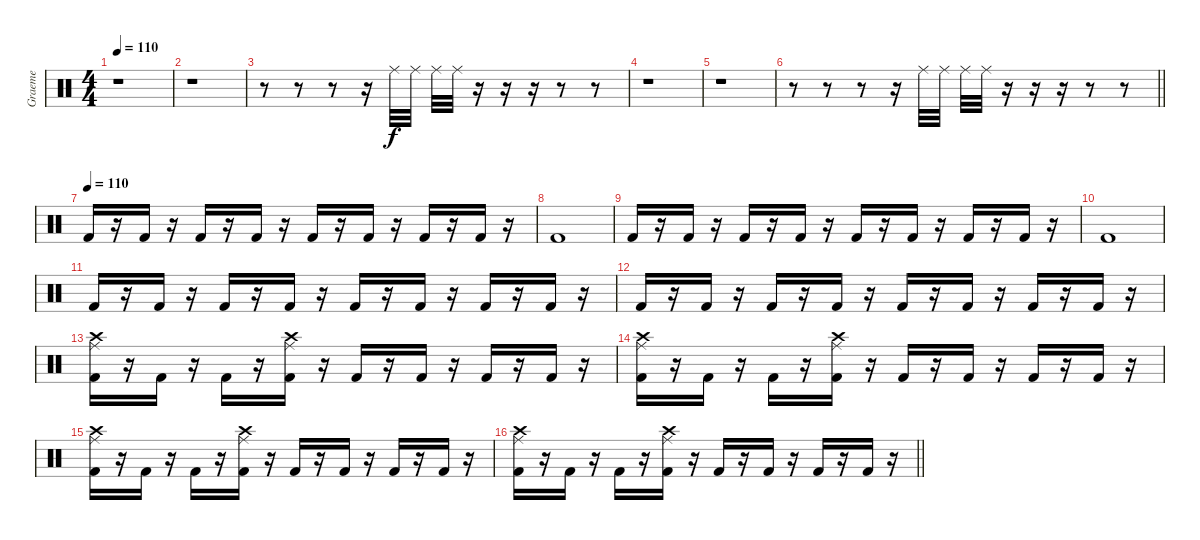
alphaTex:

\track ("Graeme" "Graeme") {instrument percussion}
\staff {score}
\articulation defaults
\ts (4 4)
\tempo 110
\tempo 105
\tempo 110
\clef neutral
\ks c
r.1{dy f} |
r.1 |
r.8 r.8 r.8 r.16 "Ride (middle)".32 "Ride (middle)".32 "Ride (middle)".32 "Ride (middle)".32 r.16 r.16 r.16 r.8 r.8 |
r.1 |
r.1 |
\barLineRight lightlight
r.8 r.8 r.8 r.16 "Ride (middle)".32 "Ride (middle)".32 "Ride (middle)".32 "Ride (middle)".32 r.16 r.16 r.16 r.8 r.8 |
\tempo (110)
"Kick (hit) 2".16 r.16 "Kick (hit) 2".16 r.16 "Kick (hit) 2".16 r.16 "Kick (hit) 2".16 r.16 "Kick (hit) 2".16 r.16 "Kick (hit) 2".16 r.16 "Kick (hit) 2".16 r.16 "Kick (hit) 2".16 r.16 |
"Kick (hit) 2".1 |
"Kick (hit) 2".16 r.16 "Kick (hit) 2".16 r.16 "Kick (hit) 2".16 r.16 "Kick (hit) 2".16 r.16 "Kick (hit) 2".16 r.16 "Kick (hit) 2".16 r.16 "Kick (hit) 2".16 r.16 "Kick (hit) 2".16 r.16 |
"Kick (hit) 2".1 |
"Kick (hit) 2".16 r.16 "Kick (hit) 2".16 r.16 "Kick (hit) 2".16 r.16 "Kick (hit) 2".16 r.16 "Kick (hit) 2".16 r.16 "Kick (hit) 2".16 r.16 "Kick (hit) 2".16 r.16 "Kick (hit) 2".16 r.16 |
"Kick (hit) 2".16 r.16 "Kick (hit) 2".16 r.16 "Kick (hit) 2".16 r.16 "Kick (hit) 2".16 r.16 "Kick (hit) 2".16 r.16 "Kick (hit) 2".16 r.16 "Kick (hit) 2".16 r.16 "Kick (hit) 2".16 r.16 |
("Ride (middle)" "Crash high (hit)" "Kick (hit) 2").16 r.16 "Kick (hit) 2".16 r.16 "Kick (hit) 2".16 r.16 ("Ride (middle)" "Crash high (hit)" "Kick (hit) 2").16 r.16 "Kick (hit) 2".16 r.16 "Kick (hit) 2".16 r.16 "Kick (hit) 2".16 r.16 "Kick (hit) 2".16 r.16 |
("Ride (middle)" "Crash high (hit)" "Kick (hit) 2").16 r.16 "Kick (hit) 2".16 r.16 "Kick (hit) 2".16 r.16 ("Ride (middle)" "Crash high (hit)" "Kick (hit) 2").16 r.16 "Kick (hit) 2".16 r.16 "Kick (hit) 2".16 r.16 "Kick (hit) 2".16 r.16 "Kick (hit) 2".16 r.16 |
("Ride (middle)" "Crash high (hit)" "Kick (hit) 2").16 r.16 "Kick (hit) 2".16 r.16 "Kick (hit) 2".16 r.16 ("Ride (middle)" "Crash high (hit)" "Kick (hit) 2").16 r.16 "Kick (hit) 2".16 r.16 "Kick (hit) 2".16 r.16 "Kick (hit) 2".16 r.16 "Kick (hit) 2".16 r.16 |
\barLineRight lightlight
("Ride (middle)" "Crash high (hit)" "Kick (hit) 2").16 r.16 "Kick (hit) 2".16 r.16 "Kick (hit) 2".16 r.16 ("Ride (middle)" "Crash high (hit)" "Kick (hit) 2").16 r.16 "Kick (hit) 2".16 r.16 "Kick (hit) 2".16 r.16 "Kick (hit) 2".16 r.16 "Kick (hit) 2".16 r.16
